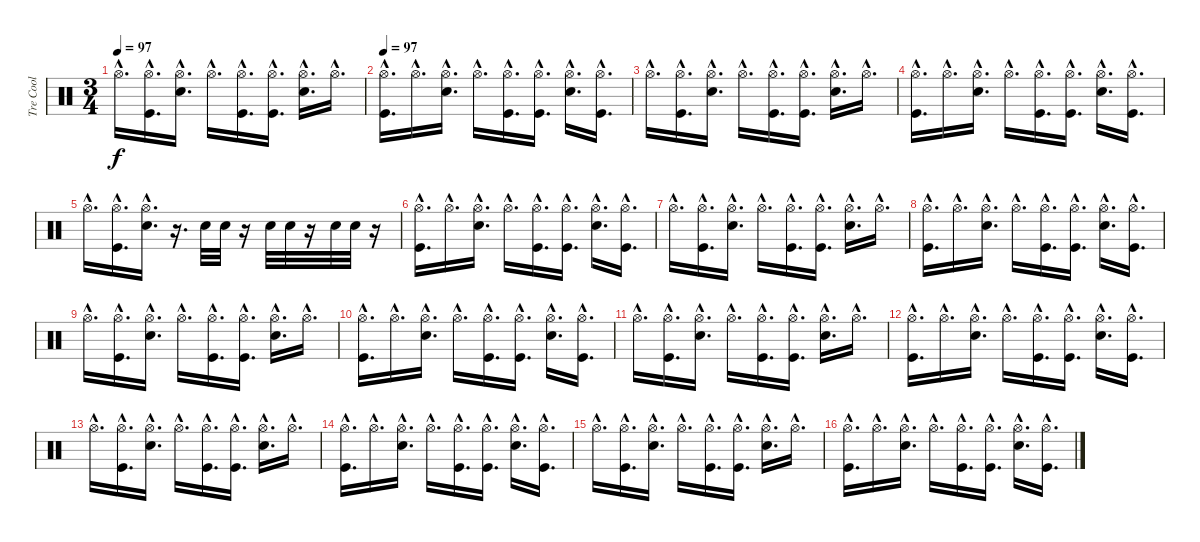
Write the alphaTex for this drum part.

\track ("Tre Cool" "Tre Cool") {instrument percussion}
\staff {score}
\articulation defaults
\ts (3 4)
\tempo 97
\clef neutral
\ks c "Hi-Hat (open)"{hac}.16{d dy f}
("Kick (hit)"{hac} "Hi-Hat (open)"{hac}).16{d} ("Snare (hit) 2"{hac} "Hi-Hat (open)"{hac}).16{d} "Hi-Hat (open)"{hac}.16{d} ("Kick (hit)"{hac} "Hi-Hat (open)"{hac}).16{d} ("Kick (hit)"{hac} "Hi-Hat (open)"{hac}).16{d} ("Snare (hit) 2"{hac} "Hi-Hat (open)"{hac}).16{d} "Hi-Hat (open)"{hac}.16{d} |
\tempo 97
("Kick (hit)"{hac} "Hi-Hat (open)"{hac}).16{d} "Hi-Hat (open)"{hac}.16{d} ("Snare (hit) 2"{hac} "Hi-Hat (open)"{hac}).16{d} "Hi-Hat (open)"{hac}.16{d} ("Kick (hit)"{hac} "Hi-Hat (open)"{hac}).16{d} ("Kick (hit)"{hac} "Hi-Hat (open)"{hac}).16{d} ("Snare (hit) 2"{hac} "Hi-Hat (open)"{hac}).16{d} ("Kick (hit)"{hac} "Hi-Hat (open)"{hac}).16{d} |
"Hi-Hat (open)"{hac}.16{d} ("Kick (hit)"{hac} "Hi-Hat (open)"{hac}).16{d} ("Snare (hit) 2"{hac} "Hi-Hat (open)"{hac}).16{d} "Hi-Hat (open)"{hac}.16{d} ("Kick (hit)"{hac} "Hi-Hat (open)"{hac}).16{d} ("Kick (hit)"{hac} "Hi-Hat (open)"{hac}).16{d} ("Snare (hit) 2"{hac} "Hi-Hat (open)"{hac}).16{d} "Hi-Hat (open)"{hac}.16{d} |
("Kick (hit)"{hac} "Hi-Hat (open)"{hac}).16{d} "Hi-Hat (open)"{hac}.16{d} ("Snare (hit) 2"{hac} "Hi-Hat (open)"{hac}).16{d} "Hi-Hat (open)"{hac}.16{d} ("Kick (hit)"{hac} "Hi-Hat (open)"{hac}).16{d} ("Kick (hit)"{hac} "Hi-Hat (open)"{hac}).16{d} ("Snare (hit) 2"{hac} "Hi-Hat (open)"{hac}).16{d} ("Kick (hit)"{hac} "Hi-Hat (open)"{hac}).16{d} |
"Hi-Hat (open)"{hac}.16{d} ("Kick (hit)"{hac} "Hi-Hat (open)"{hac}).16{d} ("Snare (hit) 2"{hac} "Hi-Hat (open)"{hac}).16{d} r.16{d} "Snare (hit) 2".32 "Snare (hit) 2".32 r.16 "Snare (hit) 2".32 "Snare (hit) 2".32 r.16 "Snare (hit) 2".32 "Snare (hit) 2".32 r.16 |
("Kick (hit)"{hac} "Hi-Hat (open)"{hac}).16{d} "Hi-Hat (open)"{hac}.16{d} ("Snare (hit) 2"{hac} "Hi-Hat (open)"{hac}).16{d} "Hi-Hat (open)"{hac}.16{d} ("Kick (hit)"{hac} "Hi-Hat (open)"{hac}).16{d} ("Kick (hit)"{hac} "Hi-Hat (open)"{hac}).16{d} ("Snare (hit) 2"{hac} "Hi-Hat (open)"{hac}).16{d} ("Kick (hit)"{hac} "Hi-Hat (open)"{hac}).16{d} |
"Hi-Hat (open)"{hac}.16{d} ("Kick (hit)"{hac} "Hi-Hat (open)"{hac}).16{d} ("Snare (hit) 2"{hac} "Hi-Hat (open)"{hac}).16{d} "Hi-Hat (open)"{hac}.16{d} ("Kick (hit)"{hac} "Hi-Hat (open)"{hac}).16{d} ("Kick (hit)"{hac} "Hi-Hat (open)"{hac}).16{d} ("Snare (hit) 2"{hac} "Hi-Hat (open)"{hac}).16{d} "Hi-Hat (open)"{hac}.16{d} |
("Kick (hit)"{hac} "Hi-Hat (open)"{hac}).16{d} "Hi-Hat (open)"{hac}.16{d} ("Snare (hit) 2"{hac} "Hi-Hat (open)"{hac}).16{d} "Hi-Hat (open)"{hac}.16{d} ("Kick (hit)"{hac} "Hi-Hat (open)"{hac}).16{d} ("Kick (hit)"{hac} "Hi-Hat (open)"{hac}).16{d} ("Snare (hit) 2"{hac} "Hi-Hat (open)"{hac}).16{d} ("Kick (hit)"{hac} "Hi-Hat (open)"{hac}).16{d} |
"Hi-Hat (open)"{hac}.16{d} ("Kick (hit)"{hac} "Hi-Hat (open)"{hac}).16{d} ("Snare (hit) 2"{hac} "Hi-Hat (open)"{hac}).16{d} "Hi-Hat (open)"{hac}.16{d} ("Kick (hit)"{hac} "Hi-Hat (open)"{hac}).16{d} ("Kick (hit)"{hac} "Hi-Hat (open)"{hac}).16{d} ("Snare (hit) 2"{hac} "Hi-Hat (open)"{hac}).16{d} "Hi-Hat (open)"{hac}.16{d} |
("Kick (hit)"{hac} "Hi-Hat (open)"{hac}).16{d} "Hi-Hat (open)"{hac}.16{d} ("Snare (hit) 2"{hac} "Hi-Hat (open)"{hac}).16{d} "Hi-Hat (open)"{hac}.16{d} ("Kick (hit)"{hac} "Hi-Hat (open)"{hac}).16{d} ("Kick (hit)"{hac} "Hi-Hat (open)"{hac}).16{d} ("Snare (hit) 2"{hac} "Hi-Hat (open)"{hac}).16{d} ("Kick (hit)"{hac} "Hi-Hat (open)"{hac}).16{d} |
"Hi-Hat (open)"{hac}.16{d} ("Kick (hit)"{hac} "Hi-Hat (open)"{hac}).16{d} ("Snare (hit) 2"{hac} "Hi-Hat (open)"{hac}).16{d} "Hi-Hat (open)"{hac}.16{d} ("Kick (hit)"{hac} "Hi-Hat (open)"{hac}).16{d} ("Kick (hit)"{hac} "Hi-Hat (open)"{hac}).16{d} ("Snare (hit) 2"{hac} "Hi-Hat (open)"{hac}).16{d} "Hi-Hat (open)"{hac}.16{d} |
("Kick (hit)"{hac} "Hi-Hat (open)"{hac}).16{d} "Hi-Hat (open)"{hac}.16{d} ("Snare (hit) 2"{hac} "Hi-Hat (open)"{hac}).16{d} "Hi-Hat (open)"{hac}.16{d} ("Kick (hit)"{hac} "Hi-Hat (open)"{hac}).16{d} ("Kick (hit)"{hac} "Hi-Hat (open)"{hac}).16{d} ("Snare (hit) 2"{hac} "Hi-Hat (open)"{hac}).16{d} ("Kick (hit)"{hac} "Hi-Hat (open)"{hac}).16{d} |
"Hi-Hat (open)"{hac}.16{d} ("Kick (hit)"{hac} "Hi-Hat (open)"{hac}).16{d} ("Snare (hit) 2"{hac} "Hi-Hat (open)"{hac}).16{d} "Hi-Hat (open)"{hac}.16{d} ("Kick (hit)"{hac} "Hi-Hat (open)"{hac}).16{d} ("Kick (hit)"{hac} "Hi-Hat (open)"{hac}).16{d} ("Snare (hit) 2"{hac} "Hi-Hat (open)"{hac}).16{d} "Hi-Hat (open)"{hac}.16{d} |
("Kick (hit)"{hac} "Hi-Hat (open)"{hac}).16{d} "Hi-Hat (open)"{hac}.16{d} ("Snare (hit) 2"{hac} "Hi-Hat (open)"{hac}).16{d} "Hi-Hat (open)"{hac}.16{d} ("Kick (hit)"{hac} "Hi-Hat (open)"{hac}).16{d} ("Kick (hit)"{hac} "Hi-Hat (open)"{hac}).16{d} ("Snare (hit) 2"{hac} "Hi-Hat (open)"{hac}).16{d} ("Kick (hit)"{hac} "Hi-Hat (open)"{hac}).16{d} |
"Hi-Hat (open)"{hac}.16{d} ("Kick (hit)"{hac} "Hi-Hat (open)"{hac}).16{d} ("Snare (hit) 2"{hac} "Hi-Hat (open)"{hac}).16{d} "Hi-Hat (open)"{hac}.16{d} ("Kick (hit)"{hac} "Hi-Hat (open)"{hac}).16{d} ("Kick (hit)"{hac} "Hi-Hat (open)"{hac}).16{d} ("Snare (hit) 2"{hac} "Hi-Hat (open)"{hac}).16{d} "Hi-Hat (open)"{hac}.16{d} |
("Kick (hit)"{hac} "Hi-Hat (open)"{hac}).16{d} "Hi-Hat (open)"{hac}.16{d} ("Snare (hit) 2"{hac} "Hi-Hat (open)"{hac}).16{d} "Hi-Hat (open)"{hac}.16{d} ("Kick (hit)"{hac} "Hi-Hat (open)"{hac}).16{d} ("Kick (hit)"{hac} "Hi-Hat (open)"{hac}).16{d} ("Snare (hit) 2"{hac} "Hi-Hat (open)"{hac}).16{d} ("Kick (hit)"{hac} "Hi-Hat (open)"{hac}).16{d}
